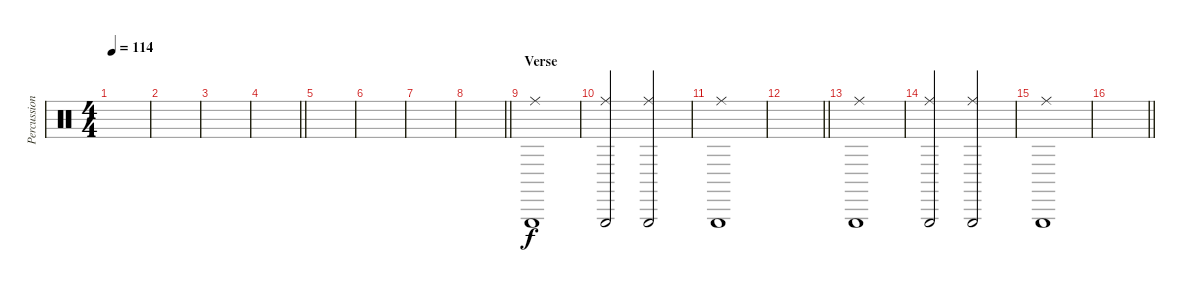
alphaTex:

\track ("Percussion" "Percussion") {instrument percussion}
\staff {score}
\articulation defaults
\ts (4 4)
\tempo 114
\clef neutral
\ks c
|
|
|
\barLineRight lightlight
|
|
|
|
\barLineRight lightlight
|
\section ("" "Verse")
("Triangle (hit)" "Ride (middle)").1 |
("Triangle (hit)" "Ride (middle)").2 ("Triangle (hit)" "Ride (middle)").2 |
("Triangle (hit)" "Ride (middle)").1 |
\barLineRight lightlight
|
("Triangle (hit)" "Ride (middle)").1 |
("Triangle (hit)" "Ride (middle)").2 ("Triangle (hit)" "Ride (middle)").2 |
("Triangle (hit)" "Ride (middle)").1 |
\barLineRight lightlight
